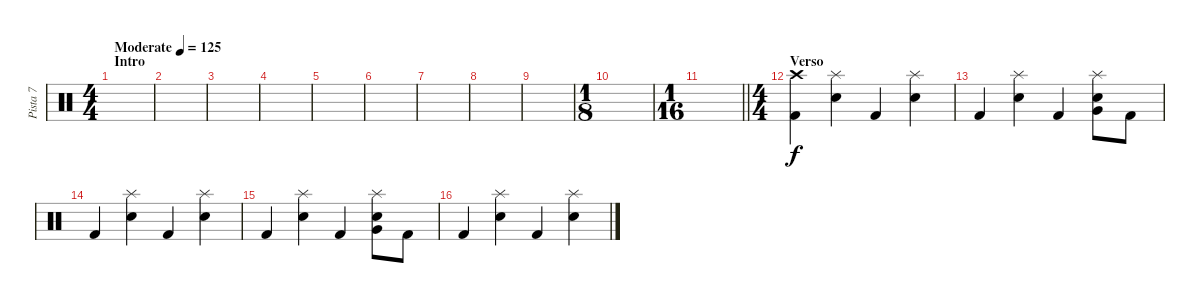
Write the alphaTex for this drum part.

\track ("Pista 7" "Pista 7") {instrument percussion}
\staff {score}
\articulation defaults
\ts (4 4)
\section ("" "Intro")
\tempo (125 "Moderate")
\clef neutral
\ks c
|
|
|
|
|
|
|
|
|
\ts (1 8)
|
\ts (1 16)
\barLineRight lightlight
|
\ts (4 4)
\section ("" "Verso")
("Crash high (hit)" "Kick (hit) 2").4 ("Splash (hit)" "Electric Snare (hit)").4 "Kick (hit) 2".4 ("Splash (hit)" "Electric Snare (hit)").4 |
"Kick (hit) 2".4 ("Splash (hit)" "Electric Snare (hit)").4 "Kick (hit) 2".4 ("Splash (hit)" "Very Low Tom (hit)" "Electric Snare (hit)").8 "Kick (hit) 2".8 |
"Kick (hit) 2".4 ("Splash (hit)" "Electric Snare (hit)").4 "Kick (hit) 2".4 ("Splash (hit)" "Electric Snare (hit)").4 |
"Kick (hit) 2".4 ("Splash (hit)" "Electric Snare (hit)").4 "Kick (hit) 2".4 ("Splash (hit)" "Very Low Tom (hit)" "Electric Snare (hit)").8 "Kick (hit) 2".8 |
"Kick (hit) 2".4 ("Splash (hit)" "Electric Snare (hit)").4 "Kick (hit) 2".4 ("Splash (hit)" "Electric Snare (hit)").4
